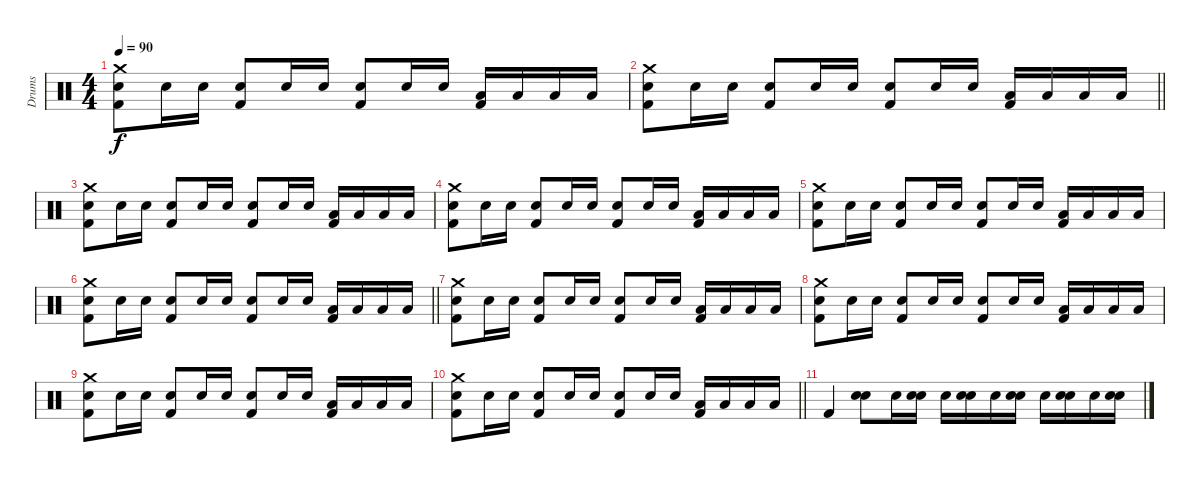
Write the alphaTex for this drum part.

\track ("Drums" "Drums") {instrument percussion}
\staff {score}
\articulation defaults
\ts (4 4)
\tempo 90
\clef neutral
\ks c
("Kick (hit) 2" "Snare (hit) 2" "Crash medium (hit)").8{dy f} "Snare (hit) 2".16 "Snare (hit) 2".16 ("Kick (hit) 2" "Snare (hit) 2").8 "Snare (hit) 2".16 "Snare (hit) 2".16 ("Kick (hit) 2" "Snare (hit) 2").8 "Snare (hit) 2".16 "Snare (hit) 2".16 ("Kick (hit) 2" "Low Floor Tom (hit)").16 "Low Floor Tom (hit)".16 "Low Floor Tom (hit)".16 "Low Floor Tom (hit)".16 |
\barLineRight lightlight
("Kick (hit) 2" "Snare (hit) 2" "Crash medium (hit)").8 "Snare (hit) 2".16 "Snare (hit) 2".16 ("Kick (hit) 2" "Snare (hit) 2").8 "Snare (hit) 2".16 "Snare (hit) 2".16 ("Kick (hit) 2" "Snare (hit) 2").8 "Snare (hit) 2".16 "Snare (hit) 2".16 ("Kick (hit) 2" "Low Floor Tom (hit)").16 "Low Floor Tom (hit)".16 "Low Floor Tom (hit)".16 "Low Floor Tom (hit)".16 |
("Kick (hit) 2" "Snare (hit) 2" "Crash medium (hit)").8 "Snare (hit) 2".16 "Snare (hit) 2".16 ("Kick (hit) 2" "Snare (hit) 2").8 "Snare (hit) 2".16 "Snare (hit) 2".16 ("Kick (hit) 2" "Snare (hit) 2").8 "Snare (hit) 2".16 "Snare (hit) 2".16 ("Kick (hit) 2" "Low Floor Tom (hit)").16 "Low Floor Tom (hit)".16 "Low Floor Tom (hit)".16 "Low Floor Tom (hit)".16 |
("Kick (hit) 2" "Snare (hit) 2" "Crash medium (hit)").8 "Snare (hit) 2".16 "Snare (hit) 2".16 ("Kick (hit) 2" "Snare (hit) 2").8 "Snare (hit) 2".16 "Snare (hit) 2".16 ("Kick (hit) 2" "Snare (hit) 2").8 "Snare (hit) 2".16 "Snare (hit) 2".16 ("Kick (hit) 2" "Low Floor Tom (hit)").16 "Low Floor Tom (hit)".16 "Low Floor Tom (hit)".16 "Low Floor Tom (hit)".16 |
("Kick (hit) 2" "Snare (hit) 2" "Crash medium (hit)").8 "Snare (hit) 2".16 "Snare (hit) 2".16 ("Kick (hit) 2" "Snare (hit) 2").8 "Snare (hit) 2".16 "Snare (hit) 2".16 ("Kick (hit) 2" "Snare (hit) 2").8 "Snare (hit) 2".16 "Snare (hit) 2".16 ("Kick (hit) 2" "Low Floor Tom (hit)").16 "Low Floor Tom (hit)".16 "Low Floor Tom (hit)".16 "Low Floor Tom (hit)".16 |
\barLineRight lightlight
("Kick (hit) 2" "Snare (hit) 2" "Crash medium (hit)").8 "Snare (hit) 2".16 "Snare (hit) 2".16 ("Kick (hit) 2" "Snare (hit) 2").8 "Snare (hit) 2".16 "Snare (hit) 2".16 ("Kick (hit) 2" "Snare (hit) 2").8 "Snare (hit) 2".16 "Snare (hit) 2".16 ("Kick (hit) 2" "Low Floor Tom (hit)").16 "Low Floor Tom (hit)".16 "Low Floor Tom (hit)".16 "Low Floor Tom (hit)".16 |
("Kick (hit) 2" "Snare (hit) 2" "Crash medium (hit)").8 "Snare (hit) 2".16 "Snare (hit) 2".16 ("Kick (hit) 2" "Snare (hit) 2").8 "Snare (hit) 2".16 "Snare (hit) 2".16 ("Kick (hit) 2" "Snare (hit) 2").8 "Snare (hit) 2".16 "Snare (hit) 2".16 ("Kick (hit) 2" "Low Floor Tom (hit)").16 "Low Floor Tom (hit)".16 "Low Floor Tom (hit)".16 "Low Floor Tom (hit)".16 |
("Kick (hit) 2" "Snare (hit) 2" "Crash medium (hit)").8 "Snare (hit) 2".16 "Snare (hit) 2".16 ("Kick (hit) 2" "Snare (hit) 2").8 "Snare (hit) 2".16 "Snare (hit) 2".16 ("Kick (hit) 2" "Snare (hit) 2").8 "Snare (hit) 2".16 "Snare (hit) 2".16 ("Kick (hit) 2" "Low Floor Tom (hit)").16 "Low Floor Tom (hit)".16 "Low Floor Tom (hit)".16 "Low Floor Tom (hit)".16 |
("Kick (hit) 2" "Snare (hit) 2" "Crash medium (hit)").8 "Snare (hit) 2".16 "Snare (hit) 2".16 ("Kick (hit) 2" "Snare (hit) 2").8 "Snare (hit) 2".16 "Snare (hit) 2".16 ("Kick (hit) 2" "Snare (hit) 2").8 "Snare (hit) 2".16 "Snare (hit) 2".16 ("Kick (hit) 2" "Low Floor Tom (hit)").16 "Low Floor Tom (hit)".16 "Low Floor Tom (hit)".16 "Low Floor Tom (hit)".16 |
\barLineRight lightlight
("Kick (hit) 2" "Snare (hit) 2" "Crash medium (hit)").8 "Snare (hit) 2".16 "Snare (hit) 2".16 ("Kick (hit) 2" "Snare (hit) 2").8 "Snare (hit) 2".16 "Snare (hit) 2".16 ("Kick (hit) 2" "Snare (hit) 2").8 "Snare (hit) 2".16 "Snare (hit) 2".16 ("Kick (hit) 2" "Low Floor Tom (hit)").16 "Low Floor Tom (hit)".16 "Low Floor Tom (hit)".16 "Low Floor Tom (hit)".16 |
"Kick (hit) 2".4 ("Snare (hit) 2" "Snare (hit) 2").8 "Snare (hit) 2".16 ("Snare (hit) 2" "Snare (hit) 2").16 "Snare (hit) 2".16 ("Snare (hit) 2" "Snare (hit) 2").16 "Snare (hit) 2".16 ("Snare (hit) 2" "Snare (hit) 2").16 "Snare (hit) 2".16 ("Snare (hit) 2" "Snare (hit) 2").16 "Snare (hit) 2".16 ("Snare (hit) 2" "Snare (hit) 2").16
